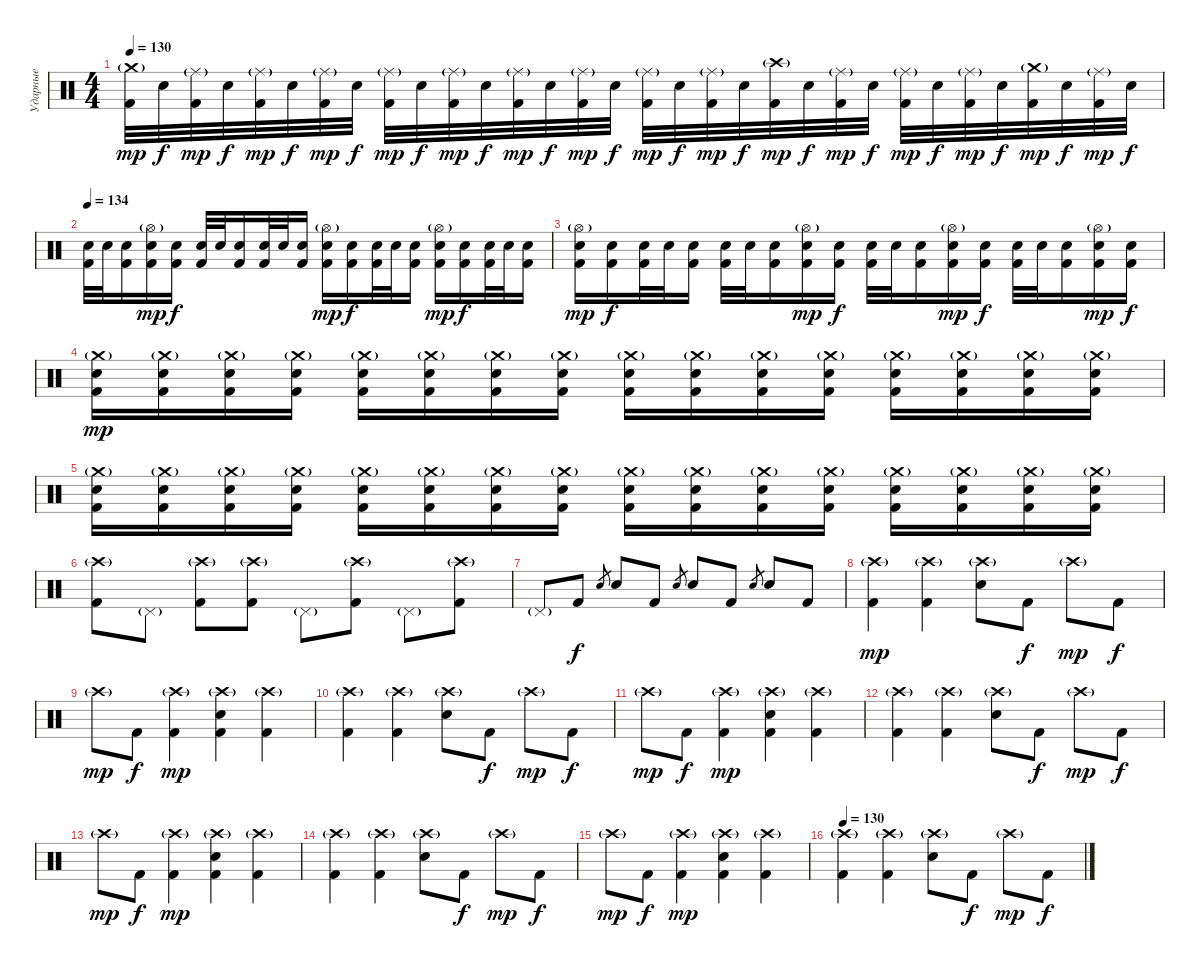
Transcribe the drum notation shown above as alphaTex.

\track ("Ударные" "Ударные") {instrument percussion}
\staff {score}
\articulation defaults
\ts (4 4)
\tempo 130
\clef neutral
\ks c
("Crash medium (hit)"{g} "Kick (hit) 2").32{dy mp} "Electric Snare (hit)".32{dy f} ("Ride (middle)"{g} "Kick (hit) 2").32{dy mp} "Electric Snare (hit)".32{dy f} ("Ride (middle)"{g} "Kick (hit) 2").32{dy mp} "Electric Snare (hit)".32{dy f} ("Ride (middle)"{g} "Kick (hit) 2").32{dy mp} "Electric Snare (hit)".32{dy f} ("Ride (middle)"{g} "Kick (hit) 2").32{dy mp} "Electric Snare (hit)".32{dy f} ("Ride (middle)"{g} "Kick (hit) 2").32{dy mp} "Electric Snare (hit)".32{dy f} ("Ride (middle)"{g} "Kick (hit) 2").32{dy mp} "Electric Snare (hit)".32{dy f} ("Ride (middle)"{g} "Kick (hit) 2").32{dy mp} "Electric Snare (hit)".32{dy f} ("Ride (middle)"{g} "Kick (hit) 2").32{dy mp} "Electric Snare (hit)".32{dy f} ("Ride (middle)"{g} "Kick (hit) 2").32{dy mp} "Electric Snare (hit)".32{dy f} ("Crash high (hit)"{g} "Kick (hit) 2").32{dy mp} "Electric Snare (hit)".32{dy f} ("Ride (middle)"{g} "Kick (hit) 2").32{dy mp} "Electric Snare (hit)".32{dy f} ("Ride (middle)"{g} "Kick (hit) 2").32{dy mp} "Electric Snare (hit)".32{dy f} ("Ride (middle)"{g} "Kick (hit) 2").32{dy mp} "Electric Snare (hit)".32{dy f} ("Crash medium (hit)"{g} "Kick (hit) 2").32{dy mp} "Electric Snare (hit)".32{dy f} ("Ride (middle)"{g} "Kick (hit) 2").32{dy mp} "Electric Snare (hit)".32{dy f} |
\tempo 134
("Electric Snare (hit)" "Kick (hit) 2").32 "Electric Snare (hit)".32 ("Electric Snare (hit)" "Kick (hit) 2").16 ("Hi-Hat (open)"{g} "Electric Snare (hit)" "Kick (hit) 2").16{dy mp} ("Electric Snare (hit)" "Kick (hit) 2").16{dy f} ("Electric Snare (hit)" "Kick (hit) 2").32 "Electric Snare (hit)".32 ("Electric Snare (hit)" "Kick (hit) 2").16 ("Electric Snare (hit)" "Kick (hit) 2").32 "Electric Snare (hit)".32 ("Electric Snare (hit)" "Kick (hit) 2").16 ("Hi-Hat (open)"{g} "Electric Snare (hit)" "Kick (hit) 2").16{dy mp} ("Electric Snare (hit)" "Kick (hit) 2").16{dy f} ("Electric Snare (hit)" "Kick (hit) 2").32 "Electric Snare (hit)".32 ("Electric Snare (hit)" "Kick (hit) 2").16 ("Hi-Hat (open)"{g} "Electric Snare (hit)" "Kick (hit) 2").16{dy mp} ("Electric Snare (hit)" "Kick (hit) 2").16{dy f} ("Electric Snare (hit)" "Kick (hit) 2").32 "Electric Snare (hit)".32 ("Electric Snare (hit)" "Kick (hit) 2").16 |
("Hi-Hat (open)"{g} "Electric Snare (hit)" "Kick (hit) 2").16{dy mp} ("Electric Snare (hit)" "Kick (hit) 2").16{dy f} ("Electric Snare (hit)" "Kick (hit) 2").32 "Electric Snare (hit)".32 ("Electric Snare (hit)" "Kick (hit) 2").16 ("Electric Snare (hit)" "Kick (hit) 2").32 "Electric Snare (hit)".32 ("Electric Snare (hit)" "Kick (hit) 2").16 ("Hi-Hat (open)"{g} "Electric Snare (hit)" "Kick (hit) 2").16{dy mp} ("Electric Snare (hit)" "Kick (hit) 2").16{dy f} ("Electric Snare (hit)" "Kick (hit) 2").32 "Electric Snare (hit)".32 ("Electric Snare (hit)" "Kick (hit) 2").16 ("Hi-Hat (open)"{g} "Electric Snare (hit)" "Kick (hit) 2").16{dy mp} ("Electric Snare (hit)" "Kick (hit) 2").16{dy f} ("Electric Snare (hit)" "Kick (hit) 2").32 "Electric Snare (hit)".32 ("Electric Snare (hit)" "Kick (hit) 2").16 ("Hi-Hat (open)"{g} "Electric Snare (hit)" "Kick (hit) 2").16{dy mp} ("Electric Snare (hit)" "Kick (hit) 2").16{dy f} |
("Crash medium (hit)"{g} "Electric Snare (hit)" "Kick (hit) 2").16{dy mp} ("Crash medium (hit)"{g} "Electric Snare (hit)" "Kick (hit) 2").16 ("Crash medium (hit)"{g} "Electric Snare (hit)" "Kick (hit) 2").16 ("Crash medium (hit)"{g} "Electric Snare (hit)" "Kick (hit) 2").16 ("Crash medium (hit)"{g} "Electric Snare (hit)" "Kick (hit) 2").16 ("Crash medium (hit)"{g} "Electric Snare (hit)" "Kick (hit) 2").16 ("Crash medium (hit)"{g} "Electric Snare (hit)" "Kick (hit) 2").16 ("Crash medium (hit)"{g} "Electric Snare (hit)" "Kick (hit) 2").16 ("Crash medium (hit)"{g} "Electric Snare (hit)" "Kick (hit) 2").16 ("Crash medium (hit)"{g} "Electric Snare (hit)" "Kick (hit) 2").16 ("Crash medium (hit)"{g} "Electric Snare (hit)" "Kick (hit) 2").16 ("Crash medium (hit)"{g} "Electric Snare (hit)" "Kick (hit) 2").16 ("Crash medium (hit)"{g} "Electric Snare (hit)" "Kick (hit) 2").16 ("Crash medium (hit)"{g} "Electric Snare (hit)" "Kick (hit) 2").16 ("Crash medium (hit)"{g} "Electric Snare (hit)" "Kick (hit) 2").16 ("Crash medium (hit)"{g} "Electric Snare (hit)" "Kick (hit) 2").16 |
("Crash medium (hit)"{g} "Electric Snare (hit)" "Kick (hit) 2").16 ("Crash medium (hit)"{g} "Electric Snare (hit)" "Kick (hit) 2").16 ("Crash medium (hit)"{g} "Electric Snare (hit)" "Kick (hit) 2").16 ("Crash medium (hit)"{g} "Electric Snare (hit)" "Kick (hit) 2").16 ("Crash medium (hit)"{g} "Electric Snare (hit)" "Kick (hit) 2").16 ("Crash medium (hit)"{g} "Electric Snare (hit)" "Kick (hit) 2").16 ("Crash medium (hit)"{g} "Electric Snare (hit)" "Kick (hit) 2").16 ("Crash medium (hit)"{g} "Electric Snare (hit)" "Kick (hit) 2").16 ("Crash medium (hit)"{g} "Electric Snare (hit)" "Kick (hit) 2").16 ("Crash medium (hit)"{g} "Electric Snare (hit)" "Kick (hit) 2").16 ("Crash medium (hit)"{g} "Electric Snare (hit)" "Kick (hit) 2").16 ("Crash medium (hit)"{g} "Electric Snare (hit)" "Kick (hit) 2").16 ("Crash medium (hit)"{g} "Electric Snare (hit)" "Kick (hit) 2").16 ("Crash medium (hit)"{g} "Electric Snare (hit)" "Kick (hit) 2").16 ("Crash medium (hit)"{g} "Electric Snare (hit)" "Kick (hit) 2").16 ("Crash medium (hit)"{g} "Electric Snare (hit)" "Kick (hit) 2").16 |
("Crash high (hit)"{g} "Kick (hit) 2").8 "Pedal Hi-Hat (hit)"{g}.8 ("Crash high (hit)"{g} "Kick (hit) 2").8 ("Crash high (hit)"{g} "Kick (hit) 2").8 "Pedal Hi-Hat (hit)"{g}.8 ("Crash high (hit)"{g} "Kick (hit) 2").8 "Pedal Hi-Hat (hit)"{g}.8 ("Crash high (hit)"{g} "Kick (hit) 2").8 |
"Pedal Hi-Hat (hit)"{g}.8 "Kick (hit) 2".8{dy f} "Electric Snare (hit)".8{gr} "Electric Snare (hit)".8 "Kick (hit) 2".8 "Electric Snare (hit)".8{gr} "Electric Snare (hit)".8 "Kick (hit) 2".8 "Electric Snare (hit)".8{gr} "Electric Snare (hit)".8 "Kick (hit) 2".8 |
("Crash high (hit)"{g} "Kick (hit) 2").4{dy mp} ("Crash high (hit)"{g} "Kick (hit) 2").4 ("Crash high (hit)"{g} "Electric Snare (hit)").8 "Kick (hit) 2".8{dy f} "Crash high (hit)"{g}.8{dy mp} "Kick (hit) 2".8{dy f} |
"Crash high (hit)"{g}.8{dy mp} "Kick (hit) 2".8{dy f} ("Crash high (hit)"{g} "Kick (hit) 2").4{dy mp} ("Crash high (hit)"{g} "Electric Snare (hit)" "Kick (hit) 2").4 ("Crash high (hit)"{g} "Kick (hit) 2").4 |
("Crash high (hit)"{g} "Kick (hit) 2").4 ("Crash high (hit)"{g} "Kick (hit) 2").4 ("Crash high (hit)"{g} "Electric Snare (hit)").8 "Kick (hit) 2".8{dy f} "Crash high (hit)"{g}.8{dy mp} "Kick (hit) 2".8{dy f} |
"Crash high (hit)"{g}.8{dy mp} "Kick (hit) 2".8{dy f} ("Crash high (hit)"{g} "Kick (hit) 2").4{dy mp} ("Crash high (hit)"{g} "Electric Snare (hit)" "Kick (hit) 2").4 ("Crash high (hit)"{g} "Kick (hit) 2").4 |
("Crash high (hit)"{g} "Kick (hit) 2").4 ("Crash high (hit)"{g} "Kick (hit) 2").4 ("Crash high (hit)"{g} "Electric Snare (hit)").8 "Kick (hit) 2".8{dy f} "Crash high (hit)"{g}.8{dy mp} "Kick (hit) 2".8{dy f} |
"Crash high (hit)"{g}.8{dy mp} "Kick (hit) 2".8{dy f} ("Crash high (hit)"{g} "Kick (hit) 2").4{dy mp} ("Crash high (hit)"{g} "Electric Snare (hit)" "Kick (hit) 2").4 ("Crash high (hit)"{g} "Kick (hit) 2").4 |
("Crash high (hit)"{g} "Kick (hit) 2").4 ("Crash high (hit)"{g} "Kick (hit) 2").4 ("Crash high (hit)"{g} "Electric Snare (hit)").8 "Kick (hit) 2".8{dy f} "Crash high (hit)"{g}.8{dy mp} "Kick (hit) 2".8{dy f} |
"Crash high (hit)"{g}.8{dy mp} "Kick (hit) 2".8{dy f} ("Crash high (hit)"{g} "Kick (hit) 2").4{dy mp} ("Crash high (hit)"{g} "Electric Snare (hit)" "Kick (hit) 2").4 ("Crash high (hit)"{g} "Kick (hit) 2").4 |
\tempo 130
("Crash high (hit)"{g} "Kick (hit) 2").4 ("Crash high (hit)"{g} "Kick (hit) 2").4 ("Crash high (hit)"{g} "Electric Snare (hit)").8 "Kick (hit) 2".8{dy f} "Crash high (hit)"{g}.8{dy mp} "Kick (hit) 2".8{dy f}
